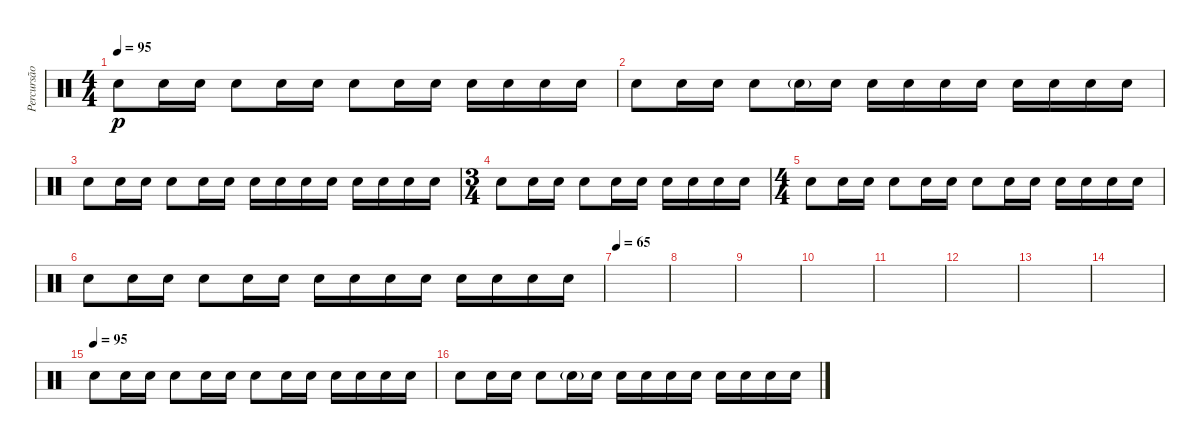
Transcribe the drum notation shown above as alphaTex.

\track ("Percursão" "Percursão") {instrument percussion}
\staff {score}
\articulation defaults
\ts (4 4)
\tempo 95
\clef neutral
\ks c "Electric Snare (hit)".8{dy p} "Electric Snare (hit)".16 "Electric Snare (hit)".16 "Electric Snare (hit)".8 "Electric Snare (hit)".16 "Electric Snare (hit)".16 "Electric Snare (hit)".8 "Electric Snare (hit)".16 "Electric Snare (hit)".16 "Electric Snare (hit)".16 "Electric Snare (hit)".16 "Electric Snare (hit)".16 "Electric Snare (hit)".16
|
"Electric Snare (hit)".8 "Electric Snare (hit)".16 "Electric Snare (hit)".16 "Electric Snare (hit)".8 "Electric Snare (hit)"{g}.16 "Electric Snare (hit)".16 "Electric Snare (hit)".16 "Electric Snare (hit)".16 "Electric Snare (hit)".16 "Electric Snare (hit)".16 "Electric Snare (hit)".16 "Electric Snare (hit)".16 "Electric Snare (hit)".16 "Electric Snare (hit)".16 |
"Electric Snare (hit)".8 "Electric Snare (hit)".16 "Electric Snare (hit)".16 "Electric Snare (hit)".8 "Electric Snare (hit)".16 "Electric Snare (hit)".16 "Electric Snare (hit)".16 "Electric Snare (hit)".16 "Electric Snare (hit)".16 "Electric Snare (hit)".16 "Electric Snare (hit)".16 "Electric Snare (hit)".16 "Electric Snare (hit)".16 "Electric Snare (hit)".16 |
\ts (3 4)
"Electric Snare (hit)".8 "Electric Snare (hit)".16 "Electric Snare (hit)".16 "Electric Snare (hit)".8 "Electric Snare (hit)".16 "Electric Snare (hit)".16 "Electric Snare (hit)".16 "Electric Snare (hit)".16 "Electric Snare (hit)".16 "Electric Snare (hit)".16 |
\ts (4 4)
"Electric Snare (hit)".8 "Electric Snare (hit)".16 "Electric Snare (hit)".16 "Electric Snare (hit)".8 "Electric Snare (hit)".16 "Electric Snare (hit)".16 "Electric Snare (hit)".8 "Electric Snare (hit)".16 "Electric Snare (hit)".16 "Electric Snare (hit)".16 "Electric Snare (hit)".16 "Electric Snare (hit)".16 "Electric Snare (hit)".16 |
"Electric Snare (hit)".8 "Electric Snare (hit)".16 "Electric Snare (hit)".16 "Electric Snare (hit)".8 "Electric Snare (hit)".16 "Electric Snare (hit)".16 "Electric Snare (hit)".16 "Electric Snare (hit)".16 "Electric Snare (hit)".16 "Electric Snare (hit)".16 "Electric Snare (hit)".16 "Electric Snare (hit)".16 "Electric Snare (hit)".16 "Electric Snare (hit)".16 |
\tempo 65
|
|
|
|
|
|
|
|
\tempo (95)
"Electric Snare (hit)".8 "Electric Snare (hit)".16 "Electric Snare (hit)".16 "Electric Snare (hit)".8 "Electric Snare (hit)".16 "Electric Snare (hit)".16 "Electric Snare (hit)".8 "Electric Snare (hit)".16 "Electric Snare (hit)".16 "Electric Snare (hit)".16 "Electric Snare (hit)".16 "Electric Snare (hit)".16 "Electric Snare (hit)".16 |
"Electric Snare (hit)".8 "Electric Snare (hit)".16 "Electric Snare (hit)".16 "Electric Snare (hit)".8 "Electric Snare (hit)"{g}.16 "Electric Snare (hit)".16 "Electric Snare (hit)".16 "Electric Snare (hit)".16 "Electric Snare (hit)".16 "Electric Snare (hit)".16 "Electric Snare (hit)".16 "Electric Snare (hit)".16 "Electric Snare (hit)".16 "Electric Snare (hit)".16
